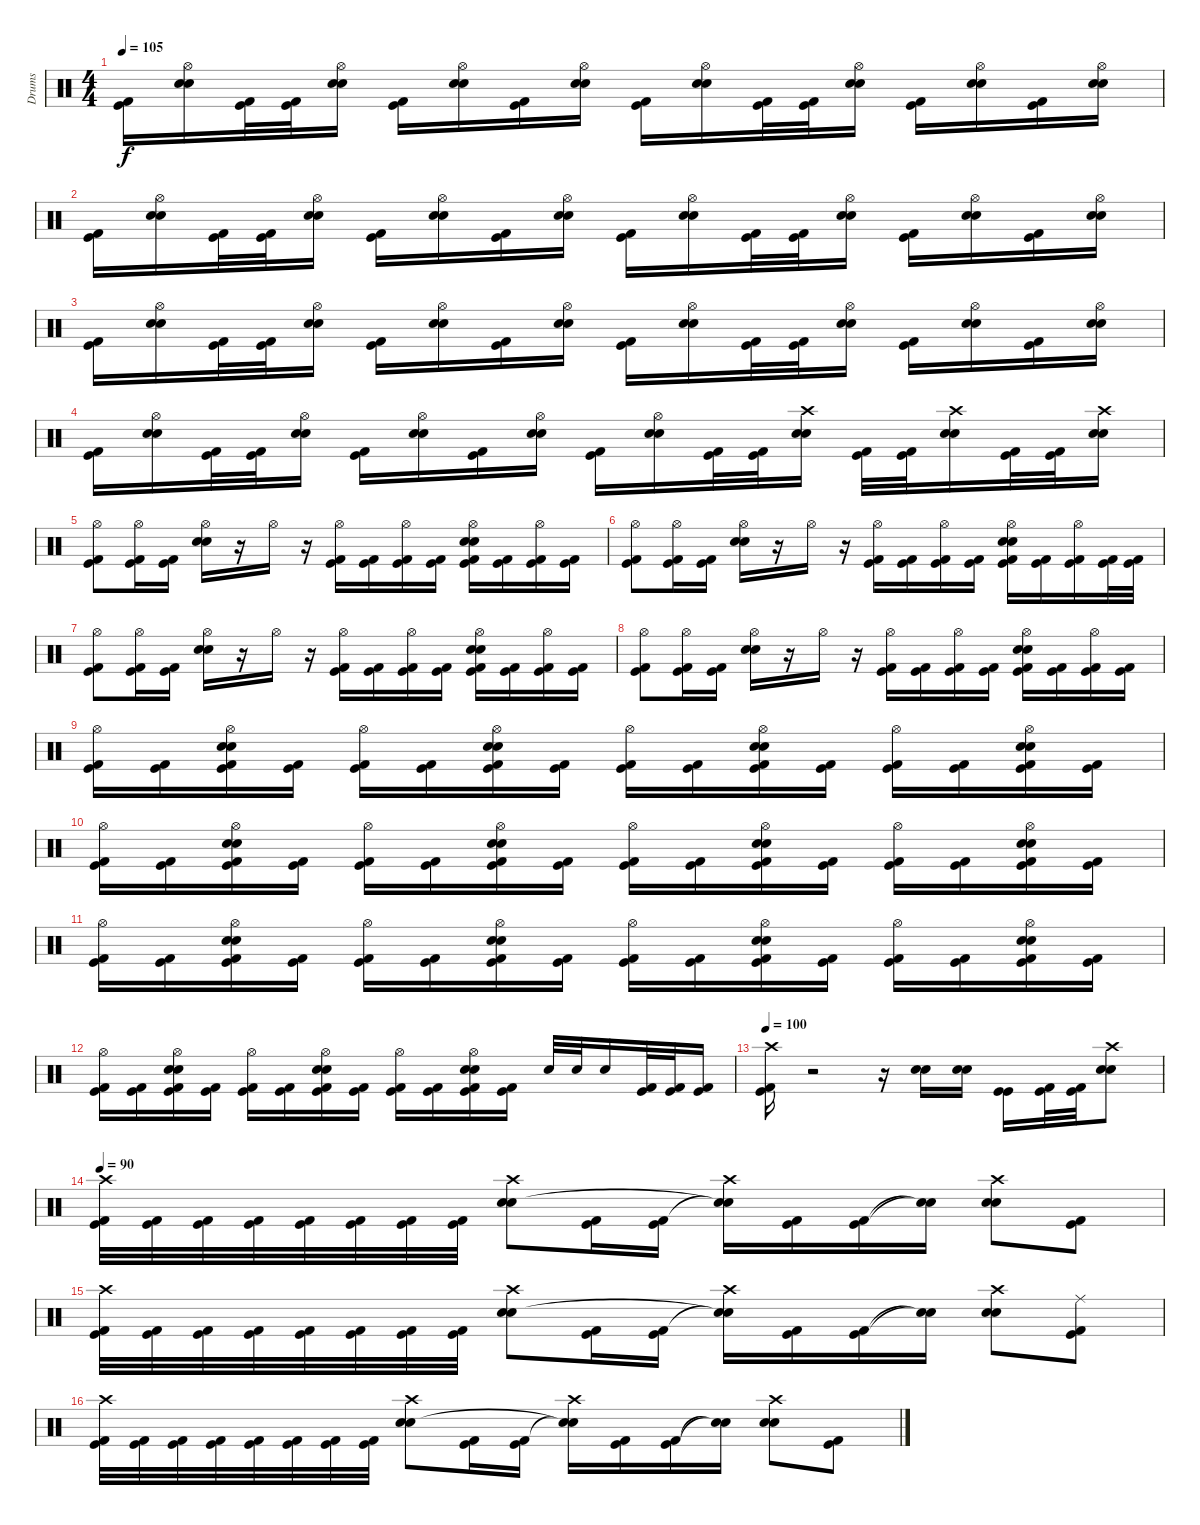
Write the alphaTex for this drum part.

\track ("Drums" "Drums") {instrument percussion}
\staff {score}
\articulation defaults
\ts (4 4)
\tempo 105
\clef neutral
\ks c
("Kick (hit)" "Kick (hit) 2").16{dy f} ("Hi-Hat (open)" "Electric Snare (hit)" "Snare (hit) 2").16 ("Kick (hit)" "Kick (hit) 2").32 ("Kick (hit)" "Kick (hit) 2").32 ("Hi-Hat (open)" "Electric Snare (hit)" "Snare (hit) 2").16 ("Kick (hit)" "Kick (hit) 2").16 ("Hi-Hat (open)" "Electric Snare (hit)" "Snare (hit) 2").16 ("Kick (hit)" "Kick (hit) 2").16 ("Hi-Hat (open)" "Electric Snare (hit)" "Snare (hit) 2").16 ("Kick (hit)" "Kick (hit) 2").16 ("Hi-Hat (open)" "Electric Snare (hit)" "Snare (hit) 2").16 ("Kick (hit)" "Kick (hit) 2").32 ("Kick (hit)" "Kick (hit) 2").32 ("Hi-Hat (open)" "Electric Snare (hit)" "Snare (hit) 2").16 ("Kick (hit)" "Kick (hit) 2").16 ("Hi-Hat (open)" "Electric Snare (hit)" "Snare (hit) 2").16 ("Kick (hit)" "Kick (hit) 2").16 ("Hi-Hat (open)" "Electric Snare (hit)" "Snare (hit) 2").16 |
("Kick (hit)" "Kick (hit) 2").16 ("Hi-Hat (open)" "Electric Snare (hit)" "Snare (hit) 2").16 ("Kick (hit)" "Kick (hit) 2").32 ("Kick (hit)" "Kick (hit) 2").32 ("Hi-Hat (open)" "Electric Snare (hit)" "Snare (hit) 2").16 ("Kick (hit)" "Kick (hit) 2").16 ("Hi-Hat (open)" "Electric Snare (hit)" "Snare (hit) 2").16 ("Kick (hit)" "Kick (hit) 2").16 ("Hi-Hat (open)" "Electric Snare (hit)" "Snare (hit) 2").16 ("Kick (hit)" "Kick (hit) 2").16 ("Hi-Hat (open)" "Electric Snare (hit)" "Snare (hit) 2").16 ("Kick (hit)" "Kick (hit) 2").32 ("Kick (hit)" "Kick (hit) 2").32 ("Hi-Hat (open)" "Electric Snare (hit)" "Snare (hit) 2").16 ("Kick (hit)" "Kick (hit) 2").16 ("Hi-Hat (open)" "Electric Snare (hit)" "Snare (hit) 2").16 ("Kick (hit)" "Kick (hit) 2").16 ("Hi-Hat (open)" "Electric Snare (hit)" "Snare (hit) 2").16 |
("Kick (hit)" "Kick (hit) 2").16 ("Hi-Hat (open)" "Electric Snare (hit)" "Snare (hit) 2").16 ("Kick (hit)" "Kick (hit) 2").32 ("Kick (hit)" "Kick (hit) 2").32 ("Hi-Hat (open)" "Electric Snare (hit)" "Snare (hit) 2").16 ("Kick (hit)" "Kick (hit) 2").16 ("Hi-Hat (open)" "Electric Snare (hit)" "Snare (hit) 2").16 ("Kick (hit)" "Kick (hit) 2").16 ("Hi-Hat (open)" "Electric Snare (hit)" "Snare (hit) 2").16 ("Kick (hit)" "Kick (hit) 2").16 ("Hi-Hat (open)" "Electric Snare (hit)" "Snare (hit) 2").16 ("Kick (hit)" "Kick (hit) 2").32 ("Kick (hit)" "Kick (hit) 2").32 ("Hi-Hat (open)" "Electric Snare (hit)" "Snare (hit) 2").16 ("Kick (hit)" "Kick (hit) 2").16 ("Hi-Hat (open)" "Electric Snare (hit)" "Snare (hit) 2").16 ("Kick (hit)" "Kick (hit) 2").16 ("Hi-Hat (open)" "Electric Snare (hit)" "Snare (hit) 2").16 |
("Kick (hit)" "Kick (hit) 2").16 ("Hi-Hat (open)" "Electric Snare (hit)" "Snare (hit) 2").16 ("Kick (hit)" "Kick (hit) 2").32 ("Kick (hit)" "Kick (hit) 2").32 ("Hi-Hat (open)" "Electric Snare (hit)" "Snare (hit) 2").16 ("Kick (hit)" "Kick (hit) 2").16 ("Hi-Hat (open)" "Electric Snare (hit)" "Snare (hit) 2").16 ("Kick (hit)" "Kick (hit) 2").16 ("Hi-Hat (open)" "Electric Snare (hit)" "Snare (hit) 2").16 ("Kick (hit)" "Kick (hit) 2").16 ("Hi-Hat (open)" "Electric Snare (hit)" "Snare (hit) 2").16 ("Kick (hit)" "Kick (hit) 2").32 ("Kick (hit)" "Kick (hit) 2").32 ("Crash high (hit)" "Electric Snare (hit)" "Snare (hit) 2").16 ("Kick (hit)" "Kick (hit) 2").32 ("Kick (hit)" "Kick (hit) 2").32 ("Crash high (hit)" "Electric Snare (hit)" "Snare (hit) 2").16 ("Kick (hit)" "Kick (hit) 2").32 ("Kick (hit)" "Kick (hit) 2").32 ("Crash high (hit)" "Electric Snare (hit)" "Snare (hit) 2").16 |
("Hi-Hat (open)" "Kick (hit)" "Kick (hit) 2").8 ("Hi-Hat (open)" "Kick (hit)" "Kick (hit) 2").16 ("Kick (hit)" "Kick (hit) 2").16 ("Hi-Hat (open)" "Electric Snare (hit)" "Snare (hit) 2").16 r.16 "Hi-Hat (open)".16 r.16 ("Hi-Hat (open)" "Kick (hit)" "Kick (hit) 2").16 ("Kick (hit)" "Kick (hit) 2").16 ("Hi-Hat (open)" "Kick (hit)" "Kick (hit) 2").16 ("Kick (hit)" "Kick (hit) 2").16 ("Electric Snare (hit)" "Hi-Hat (open)" "Snare (hit) 2" "Kick (hit)" "Kick (hit) 2").16 ("Kick (hit)" "Kick (hit) 2").16 ("Hi-Hat (open)" "Kick (hit)" "Kick (hit) 2").16 ("Kick (hit)" "Kick (hit) 2").16 |
("Hi-Hat (open)" "Kick (hit)" "Kick (hit) 2").8 ("Hi-Hat (open)" "Kick (hit)" "Kick (hit) 2").16 ("Kick (hit)" "Kick (hit) 2").16 ("Hi-Hat (open)" "Electric Snare (hit)" "Snare (hit) 2").16 r.16 "Hi-Hat (open)".16 r.16 ("Hi-Hat (open)" "Kick (hit)" "Kick (hit) 2").16 ("Kick (hit)" "Kick (hit) 2").16 ("Hi-Hat (open)" "Kick (hit)" "Kick (hit) 2").16 ("Kick (hit)" "Kick (hit) 2").16 ("Electric Snare (hit)" "Hi-Hat (open)" "Snare (hit) 2" "Kick (hit)" "Kick (hit) 2").16 ("Kick (hit)" "Kick (hit) 2").16 ("Hi-Hat (open)" "Kick (hit)" "Kick (hit) 2").16 ("Kick (hit)" "Kick (hit) 2").32 ("Kick (hit)" "Kick (hit) 2").32 |
("Hi-Hat (open)" "Kick (hit)" "Kick (hit) 2").8 ("Hi-Hat (open)" "Kick (hit)" "Kick (hit) 2").16 ("Kick (hit)" "Kick (hit) 2").16 ("Hi-Hat (open)" "Electric Snare (hit)" "Snare (hit) 2").16 r.16 "Hi-Hat (open)".16 r.16 ("Hi-Hat (open)" "Kick (hit)" "Kick (hit) 2").16 ("Kick (hit)" "Kick (hit) 2").16 ("Hi-Hat (open)" "Kick (hit)" "Kick (hit) 2").16 ("Kick (hit)" "Kick (hit) 2").16 ("Electric Snare (hit)" "Hi-Hat (open)" "Snare (hit) 2" "Kick (hit)" "Kick (hit) 2").16 ("Kick (hit)" "Kick (hit) 2").16 ("Hi-Hat (open)" "Kick (hit)" "Kick (hit) 2").16 ("Kick (hit)" "Kick (hit) 2").16 |
("Hi-Hat (open)" "Kick (hit)" "Kick (hit) 2").8 ("Hi-Hat (open)" "Kick (hit)" "Kick (hit) 2").16 ("Kick (hit)" "Kick (hit) 2").16 ("Hi-Hat (open)" "Electric Snare (hit)" "Snare (hit) 2").16 r.16 "Hi-Hat (open)".16 r.16 ("Hi-Hat (open)" "Kick (hit)" "Kick (hit) 2").16 ("Kick (hit)" "Kick (hit) 2").16 ("Hi-Hat (open)" "Kick (hit)" "Kick (hit) 2").16 ("Kick (hit)" "Kick (hit) 2").16 ("Electric Snare (hit)" "Hi-Hat (open)" "Snare (hit) 2" "Kick (hit)" "Kick (hit) 2").16 ("Kick (hit)" "Kick (hit) 2").16 ("Hi-Hat (open)" "Kick (hit)" "Kick (hit) 2").16 ("Kick (hit)" "Kick (hit) 2").16 |
("Hi-Hat (open)" "Kick (hit)" "Kick (hit) 2").16 ("Kick (hit)" "Kick (hit) 2").16 ("Hi-Hat (open)" "Electric Snare (hit)" "Snare (hit) 2" "Kick (hit)" "Kick (hit) 2").16 ("Kick (hit)" "Kick (hit) 2").16 ("Hi-Hat (open)" "Kick (hit)" "Kick (hit) 2").16 ("Kick (hit)" "Kick (hit) 2").16 ("Hi-Hat (open)" "Electric Snare (hit)" "Snare (hit) 2" "Kick (hit)" "Kick (hit) 2").16 ("Kick (hit)" "Kick (hit) 2").16 ("Hi-Hat (open)" "Kick (hit)" "Kick (hit) 2").16 ("Kick (hit)" "Kick (hit) 2").16 ("Hi-Hat (open)" "Electric Snare (hit)" "Snare (hit) 2" "Kick (hit)" "Kick (hit) 2").16 ("Kick (hit)" "Kick (hit) 2").16 ("Hi-Hat (open)" "Kick (hit)" "Kick (hit) 2").16 ("Kick (hit)" "Kick (hit) 2").16 ("Hi-Hat (open)" "Electric Snare (hit)" "Snare (hit) 2" "Kick (hit)" "Kick (hit) 2").16 ("Kick (hit)" "Kick (hit) 2").16 |
("Hi-Hat (open)" "Kick (hit)" "Kick (hit) 2").16 ("Kick (hit)" "Kick (hit) 2").16 ("Hi-Hat (open)" "Electric Snare (hit)" "Snare (hit) 2" "Kick (hit)" "Kick (hit) 2").16 ("Kick (hit)" "Kick (hit) 2").16 ("Hi-Hat (open)" "Kick (hit)" "Kick (hit) 2").16 ("Kick (hit)" "Kick (hit) 2").16 ("Hi-Hat (open)" "Electric Snare (hit)" "Snare (hit) 2" "Kick (hit)" "Kick (hit) 2").16 ("Kick (hit)" "Kick (hit) 2").16 ("Hi-Hat (open)" "Kick (hit)" "Kick (hit) 2").16 ("Kick (hit)" "Kick (hit) 2").16 ("Hi-Hat (open)" "Electric Snare (hit)" "Snare (hit) 2" "Kick (hit)" "Kick (hit) 2").16 ("Kick (hit)" "Kick (hit) 2").16 ("Hi-Hat (open)" "Kick (hit)" "Kick (hit) 2").16 ("Kick (hit)" "Kick (hit) 2").16 ("Hi-Hat (open)" "Electric Snare (hit)" "Snare (hit) 2" "Kick (hit)" "Kick (hit) 2").16 ("Kick (hit)" "Kick (hit) 2").16 |
("Hi-Hat (open)" "Kick (hit)" "Kick (hit) 2").16 ("Kick (hit)" "Kick (hit) 2").16 ("Hi-Hat (open)" "Electric Snare (hit)" "Snare (hit) 2" "Kick (hit)" "Kick (hit) 2").16 ("Kick (hit)" "Kick (hit) 2").16 ("Hi-Hat (open)" "Kick (hit)" "Kick (hit) 2").16 ("Kick (hit)" "Kick (hit) 2").16 ("Hi-Hat (open)" "Electric Snare (hit)" "Snare (hit) 2" "Kick (hit)" "Kick (hit) 2").16 ("Kick (hit)" "Kick (hit) 2").16 ("Hi-Hat (open)" "Kick (hit)" "Kick (hit) 2").16 ("Kick (hit)" "Kick (hit) 2").16 ("Hi-Hat (open)" "Electric Snare (hit)" "Snare (hit) 2" "Kick (hit)" "Kick (hit) 2").16 ("Kick (hit)" "Kick (hit) 2").16 ("Hi-Hat (open)" "Kick (hit)" "Kick (hit) 2").16 ("Kick (hit)" "Kick (hit) 2").16 ("Hi-Hat (open)" "Electric Snare (hit)" "Snare (hit) 2" "Kick (hit)" "Kick (hit) 2").16 ("Kick (hit)" "Kick (hit) 2").16 |
("Hi-Hat (open)" "Kick (hit)" "Kick (hit) 2").16 ("Kick (hit)" "Kick (hit) 2").16 ("Hi-Hat (open)" "Electric Snare (hit)" "Snare (hit) 2" "Kick (hit)" "Kick (hit) 2").16 ("Kick (hit)" "Kick (hit) 2").16 ("Hi-Hat (open)" "Kick (hit)" "Kick (hit) 2").16 ("Kick (hit)" "Kick (hit) 2").16 ("Hi-Hat (open)" "Electric Snare (hit)" "Snare (hit) 2" "Kick (hit)" "Kick (hit) 2").16 ("Kick (hit)" "Kick (hit) 2").16 ("Hi-Hat (open)" "Kick (hit)" "Kick (hit) 2").16 ("Kick (hit)" "Kick (hit) 2").16 ("Hi-Hat (open)" "Electric Snare (hit)" "Snare (hit) 2" "Kick (hit)" "Kick (hit) 2").16 ("Kick (hit)" "Kick (hit) 2").16 "Snare (hit) 2".32 "Snare (hit) 2".32 "Snare (hit) 2".16 ("Kick (hit)" "Kick (hit) 2").32 ("Kick (hit)" "Kick (hit) 2").32 ("Kick (hit)" "Kick (hit) 2").16 |
\tempo 100
("Crash high (hit)" "Kick (hit)" "Kick (hit) 2").16 r.2 r.16 ("Electric Snare (hit)" "Snare (hit) 2").16 ("Electric Snare (hit)" "Snare (hit) 2").16 ("Kick (hit)" "Kick (hit)").16 ("Kick (hit)" "Kick (hit) 2").32 ("Kick (hit)" "Kick (hit) 2").32 ("Crash high (hit)" "Electric Snare (hit)" "Snare (hit) 2").8 |
\tempo 90
("Crash high (hit)" "Kick (hit)" "Kick (hit) 2").32 ("Kick (hit)" "Kick (hit) 2").32 ("Kick (hit)" "Kick (hit) 2").32 ("Kick (hit)" "Kick (hit) 2").32 ("Kick (hit)" "Kick (hit) 2").32 ("Kick (hit)" "Kick (hit) 2").32 ("Kick (hit)" "Kick (hit) 2").32 ("Kick (hit)" "Kick (hit) 2").32 ("Crash high (hit)" "Electric Snare (hit)" "Snare (hit) 2").8 ("Kick (hit)" "Kick (hit) 2").16 ("Kick (hit)" "Kick (hit) 2").16 ("Crash high (hit)" "Snare (hit)"{t} "Snare (hit)"{t}).16 ("Kick (hit)" "Kick (hit) 2").16 ("Kick (hit)" "Kick (hit) 2").16 ("Snare (hit)"{t} "Snare (hit)"{t}).16 ("Crash high (hit)" "Electric Snare (hit)" "Snare (hit) 2").8 ("Kick (hit)" "Kick (hit) 2").8 |
("Crash high (hit)" "Kick (hit)" "Kick (hit) 2").32 ("Kick (hit)" "Kick (hit) 2").32 ("Kick (hit)" "Kick (hit) 2").32 ("Kick (hit)" "Kick (hit) 2").32 ("Kick (hit)" "Kick (hit) 2").32 ("Kick (hit)" "Kick (hit) 2").32 ("Kick (hit)" "Kick (hit) 2").32 ("Kick (hit)" "Kick (hit) 2").32 ("Crash high (hit)" "Electric Snare (hit)" "Snare (hit) 2").8 ("Kick (hit)" "Kick (hit) 2").16 ("Kick (hit)" "Kick (hit) 2").16 ("Crash high (hit)" "Snare (hit)"{t} "Snare (hit)"{t}).16 ("Kick (hit)" "Kick (hit) 2").16 ("Kick (hit)" "Kick (hit) 2").16 ("Snare (hit)"{t} "Snare (hit)"{t}).16 ("Crash high (hit)" "Electric Snare (hit)" "Snare (hit) 2").8 ("Ride (middle)" "Kick (hit)" "Kick (hit) 2").8 |
("Crash high (hit)" "Kick (hit)" "Kick (hit) 2").32 ("Kick (hit)" "Kick (hit) 2").32 ("Kick (hit)" "Kick (hit) 2").32 ("Kick (hit)" "Kick (hit) 2").32 ("Kick (hit)" "Kick (hit) 2").32 ("Kick (hit)" "Kick (hit) 2").32 ("Kick (hit)" "Kick (hit) 2").32 ("Kick (hit)" "Kick (hit) 2").32 ("Crash high (hit)" "Electric Snare (hit)" "Snare (hit) 2").8 ("Kick (hit)" "Kick (hit) 2").16 ("Kick (hit)" "Kick (hit) 2").16 ("Crash high (hit)" "Snare (hit)"{t} "Snare (hit)"{t}).16 ("Kick (hit)" "Kick (hit) 2").16 ("Kick (hit)" "Kick (hit) 2").16 ("Snare (hit)"{t} "Snare (hit)"{t}).16 ("Crash high (hit)" "Electric Snare (hit)" "Snare (hit) 2").8 ("Kick (hit)" "Kick (hit) 2").8
